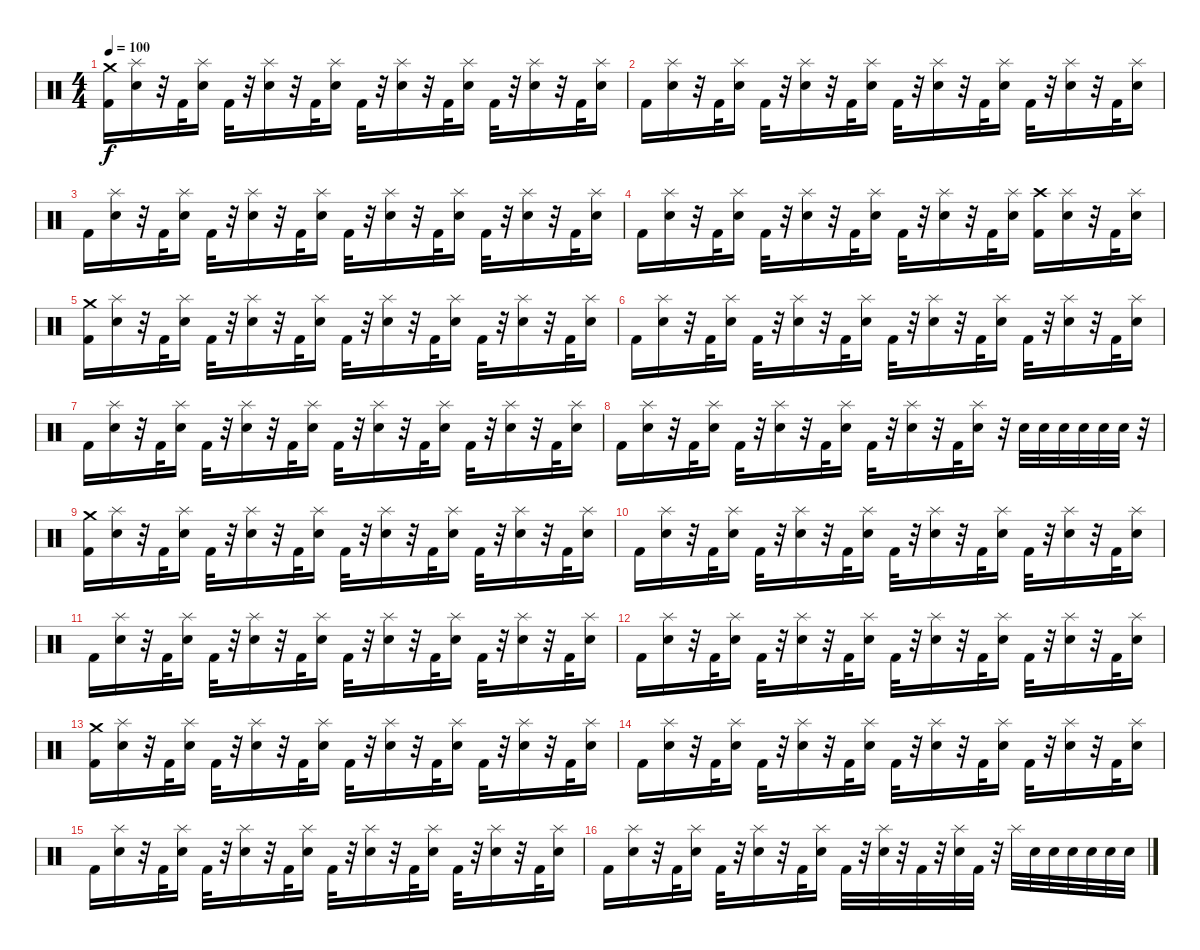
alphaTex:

\track "" {instrument percussion}
\staff {score}
\articulation defaults
\ts (4 4)
\tempo 100
\clef neutral
\ks c
("Crash medium (hit)" "Kick (hit) 2").16{dy f} ("Splash (hit)" "Snare (hit) 2").16 r.32 "Kick (hit) 2".32 ("Splash (hit)" "Snare (hit) 2").16 "Kick (hit) 2".32 r.32 ("Splash (hit)" "Snare (hit) 2").16 r.32 "Kick (hit) 2".32 ("Splash (hit)" "Snare (hit) 2").16 "Kick (hit) 2".32 r.32 ("Splash (hit)" "Snare (hit) 2").16 r.32 "Kick (hit) 2".32 ("Splash (hit)" "Snare (hit) 2").16 "Kick (hit) 2".32 r.32 ("Splash (hit)" "Snare (hit) 2").16 r.32 "Kick (hit) 2".32 ("Splash (hit)" "Snare (hit) 2").16 |
"Kick (hit) 2".16 ("Splash (hit)" "Snare (hit) 2").16 r.32 "Kick (hit) 2".32 ("Splash (hit)" "Snare (hit) 2").16 "Kick (hit) 2".32 r.32 ("Splash (hit)" "Snare (hit) 2").16 r.32 "Kick (hit) 2".32 ("Splash (hit)" "Snare (hit) 2").16 "Kick (hit) 2".32 r.32 ("Splash (hit)" "Snare (hit) 2").16 r.32 "Kick (hit) 2".32 ("Splash (hit)" "Snare (hit) 2").16 "Kick (hit) 2".32 r.32 ("Splash (hit)" "Snare (hit) 2").16 r.32 "Kick (hit) 2".32 ("Splash (hit)" "Snare (hit) 2").16 |
"Kick (hit) 2".16 ("Splash (hit)" "Snare (hit) 2").16 r.32 "Kick (hit) 2".32 ("Splash (hit)" "Snare (hit) 2").16 "Kick (hit) 2".32 r.32 ("Splash (hit)" "Snare (hit) 2").16 r.32 "Kick (hit) 2".32 ("Splash (hit)" "Snare (hit) 2").16 "Kick (hit) 2".32 r.32 ("Splash (hit)" "Snare (hit) 2").16 r.32 "Kick (hit) 2".32 ("Splash (hit)" "Snare (hit) 2").16 "Kick (hit) 2".32 r.32 ("Splash (hit)" "Snare (hit) 2").16 r.32 "Kick (hit) 2".32 ("Splash (hit)" "Snare (hit) 2").16 |
"Kick (hit) 2".16 ("Splash (hit)" "Snare (hit) 2").16 r.32 "Kick (hit) 2".32 ("Splash (hit)" "Snare (hit) 2").16 "Kick (hit) 2".32 r.32 ("Splash (hit)" "Snare (hit) 2").16 r.32 "Kick (hit) 2".32 ("Splash (hit)" "Snare (hit) 2").16 "Kick (hit) 2".32 r.32 ("Splash (hit)" "Snare (hit) 2").16 r.32 "Kick (hit) 2".32 ("Splash (hit)" "Snare (hit) 2").16 ("Crash high (hit)" "Kick (hit) 2").16 ("Splash (hit)" "Snare (hit) 2").16 r.32 "Kick (hit) 2".32 ("Splash (hit)" "Snare (hit) 2").16 |
("Crash medium (hit)" "Kick (hit) 2").16 ("Splash (hit)" "Snare (hit) 2").16 r.32 "Kick (hit) 2".32 ("Splash (hit)" "Snare (hit) 2").16 "Kick (hit) 2".32 r.32 ("Splash (hit)" "Snare (hit) 2").16 r.32 "Kick (hit) 2".32 ("Splash (hit)" "Snare (hit) 2").16 "Kick (hit) 2".32 r.32 ("Splash (hit)" "Snare (hit) 2").16 r.32 "Kick (hit) 2".32 ("Splash (hit)" "Snare (hit) 2").16 "Kick (hit) 2".32 r.32 ("Splash (hit)" "Snare (hit) 2").16 r.32 "Kick (hit) 2".32 ("Splash (hit)" "Snare (hit) 2").16 |
"Kick (hit) 2".16 ("Splash (hit)" "Snare (hit) 2").16 r.32 "Kick (hit) 2".32 ("Splash (hit)" "Snare (hit) 2").16 "Kick (hit) 2".32 r.32 ("Splash (hit)" "Snare (hit) 2").16 r.32 "Kick (hit) 2".32 ("Splash (hit)" "Snare (hit) 2").16 "Kick (hit) 2".32 r.32 ("Splash (hit)" "Snare (hit) 2").16 r.32 "Kick (hit) 2".32 ("Splash (hit)" "Snare (hit) 2").16 "Kick (hit) 2".32 r.32 ("Splash (hit)" "Snare (hit) 2").16 r.32 "Kick (hit) 2".32 ("Splash (hit)" "Snare (hit) 2").16 |
"Kick (hit) 2".16 ("Splash (hit)" "Snare (hit) 2").16 r.32 "Kick (hit) 2".32 ("Splash (hit)" "Snare (hit) 2").16 "Kick (hit) 2".32 r.32 ("Splash (hit)" "Snare (hit) 2").16 r.32 "Kick (hit) 2".32 ("Splash (hit)" "Snare (hit) 2").16 "Kick (hit) 2".32 r.32 ("Splash (hit)" "Snare (hit) 2").16 r.32 "Kick (hit) 2".32 ("Splash (hit)" "Snare (hit) 2").16 "Kick (hit) 2".32 r.32 ("Splash (hit)" "Snare (hit) 2").16 r.32 "Kick (hit) 2".32 ("Splash (hit)" "Snare (hit) 2").16 |
"Kick (hit) 2".16 ("Splash (hit)" "Snare (hit) 2").16 r.32 "Kick (hit) 2".32 ("Splash (hit)" "Snare (hit) 2").16 "Kick (hit) 2".32 r.32 ("Splash (hit)" "Snare (hit) 2").16 r.32 "Kick (hit) 2".32 ("Splash (hit)" "Snare (hit) 2").16 "Kick (hit) 2".32 r.32 ("Splash (hit)" "Snare (hit) 2").16 r.32 "Kick (hit) 2".32 ("Splash (hit)" "Snare (hit) 2").16 r.32 "Snare (hit) 2".32 "Snare (hit) 2".32 "Snare (hit) 2".32 "Snare (hit) 2".32 "Snare (hit) 2".32 "Snare (hit) 2".32 r.32 |
("Crash medium (hit)" "Kick (hit) 2").16 ("Splash (hit)" "Snare (hit) 2").16 r.32 "Kick (hit) 2".32 ("Splash (hit)" "Snare (hit) 2").16 "Kick (hit) 2".32 r.32 ("Splash (hit)" "Snare (hit) 2").16 r.32 "Kick (hit) 2".32 ("Splash (hit)" "Snare (hit) 2").16 "Kick (hit) 2".32 r.32 ("Splash (hit)" "Snare (hit) 2").16 r.32 "Kick (hit) 2".32 ("Splash (hit)" "Snare (hit) 2").16 "Kick (hit) 2".32 r.32 ("Splash (hit)" "Snare (hit) 2").16 r.32 "Kick (hit) 2".32 ("Splash (hit)" "Snare (hit) 2").16 |
"Kick (hit) 2".16 ("Splash (hit)" "Snare (hit) 2").16 r.32 "Kick (hit) 2".32 ("Splash (hit)" "Snare (hit) 2").16 "Kick (hit) 2".32 r.32 ("Splash (hit)" "Snare (hit) 2").16 r.32 "Kick (hit) 2".32 ("Splash (hit)" "Snare (hit) 2").16 "Kick (hit) 2".32 r.32 ("Splash (hit)" "Snare (hit) 2").16 r.32 "Kick (hit) 2".32 ("Splash (hit)" "Snare (hit) 2").16 "Kick (hit) 2".32 r.32 ("Splash (hit)" "Snare (hit) 2").16 r.32 "Kick (hit) 2".32 ("Splash (hit)" "Snare (hit) 2").16 |
"Kick (hit) 2".16 ("Splash (hit)" "Snare (hit) 2").16 r.32 "Kick (hit) 2".32 ("Splash (hit)" "Snare (hit) 2").16 "Kick (hit) 2".32 r.32 ("Splash (hit)" "Snare (hit) 2").16 r.32 "Kick (hit) 2".32 ("Splash (hit)" "Snare (hit) 2").16 "Kick (hit) 2".32 r.32 ("Splash (hit)" "Snare (hit) 2").16 r.32 "Kick (hit) 2".32 ("Splash (hit)" "Snare (hit) 2").16 "Kick (hit) 2".32 r.32 ("Splash (hit)" "Snare (hit) 2").16 r.32 "Kick (hit) 2".32 ("Splash (hit)" "Snare (hit) 2").16 |
"Kick (hit) 2".16 ("Splash (hit)" "Snare (hit) 2").16 r.32 "Kick (hit) 2".32 ("Splash (hit)" "Snare (hit) 2").16 "Kick (hit) 2".32 r.32 ("Splash (hit)" "Snare (hit) 2").16 r.32 "Kick (hit) 2".32 ("Splash (hit)" "Snare (hit) 2").16 "Kick (hit) 2".32 r.32 ("Splash (hit)" "Snare (hit) 2").16 r.32 "Kick (hit) 2".32 ("Splash (hit)" "Snare (hit) 2").16 "Kick (hit) 2".32 r.32 ("Splash (hit)" "Snare (hit) 2").16 r.32 "Kick (hit) 2".32 ("Splash (hit)" "Snare (hit) 2").16 |
("Crash medium (hit)" "Kick (hit) 2").16 ("Splash (hit)" "Snare (hit) 2").16 r.32 "Kick (hit) 2".32 ("Splash (hit)" "Snare (hit) 2").16 "Kick (hit) 2".32 r.32 ("Splash (hit)" "Snare (hit) 2").16 r.32 "Kick (hit) 2".32 ("Splash (hit)" "Snare (hit) 2").16 "Kick (hit) 2".32 r.32 ("Splash (hit)" "Snare (hit) 2").16 r.32 "Kick (hit) 2".32 ("Splash (hit)" "Snare (hit) 2").16 "Kick (hit) 2".32 r.32 ("Splash (hit)" "Snare (hit) 2").16 r.32 "Kick (hit) 2".32 ("Splash (hit)" "Snare (hit) 2").16 |
"Kick (hit) 2".16 ("Splash (hit)" "Snare (hit) 2").16 r.32 "Kick (hit) 2".32 ("Splash (hit)" "Snare (hit) 2").16 "Kick (hit) 2".32 r.32 ("Splash (hit)" "Snare (hit) 2").16 r.32 "Kick (hit) 2".32 ("Splash (hit)" "Snare (hit) 2").16 "Kick (hit) 2".32 r.32 ("Splash (hit)" "Snare (hit) 2").16 r.32 "Kick (hit) 2".32 ("Splash (hit)" "Snare (hit) 2").16 "Kick (hit) 2".32 r.32 ("Splash (hit)" "Snare (hit) 2").16 r.32 "Kick (hit) 2".32 ("Splash (hit)" "Snare (hit) 2").16 |
"Kick (hit) 2".16 ("Splash (hit)" "Snare (hit) 2").16 r.32 "Kick (hit) 2".32 ("Splash (hit)" "Snare (hit) 2").16 "Kick (hit) 2".32 r.32 ("Splash (hit)" "Snare (hit) 2").16 r.32 "Kick (hit) 2".32 ("Splash (hit)" "Snare (hit) 2").16 "Kick (hit) 2".32 r.32 ("Splash (hit)" "Snare (hit) 2").16 r.32 "Kick (hit) 2".32 ("Splash (hit)" "Snare (hit) 2").16 "Kick (hit) 2".32 r.32 ("Splash (hit)" "Snare (hit) 2").16 r.32 "Kick (hit) 2".32 ("Splash (hit)" "Snare (hit) 2").16 |
"Kick (hit) 2".16 ("Splash (hit)" "Snare (hit) 2").16 r.32 "Kick (hit) 2".32 ("Splash (hit)" "Snare (hit) 2").16 "Kick (hit) 2".32 r.32 ("Splash (hit)" "Snare (hit) 2").16 r.32 "Kick (hit) 2".32 ("Splash (hit)" "Snare (hit) 2").16 "Kick (hit) 2".32 r.32 ("Splash (hit)" "Snare (hit) 2").32 r.32 "Kick (hit) 2".32 r.32 ("Splash (hit)" "Snare (hit) 2").32 "Kick (hit) 2".32 r.32 "Splash (hit)".32 "Snare (hit) 2".32 "Snare (hit) 2".32 "Snare (hit) 2".32 "Snare (hit) 2".32 "Snare (hit) 2".32 "Snare (hit) 2".32
